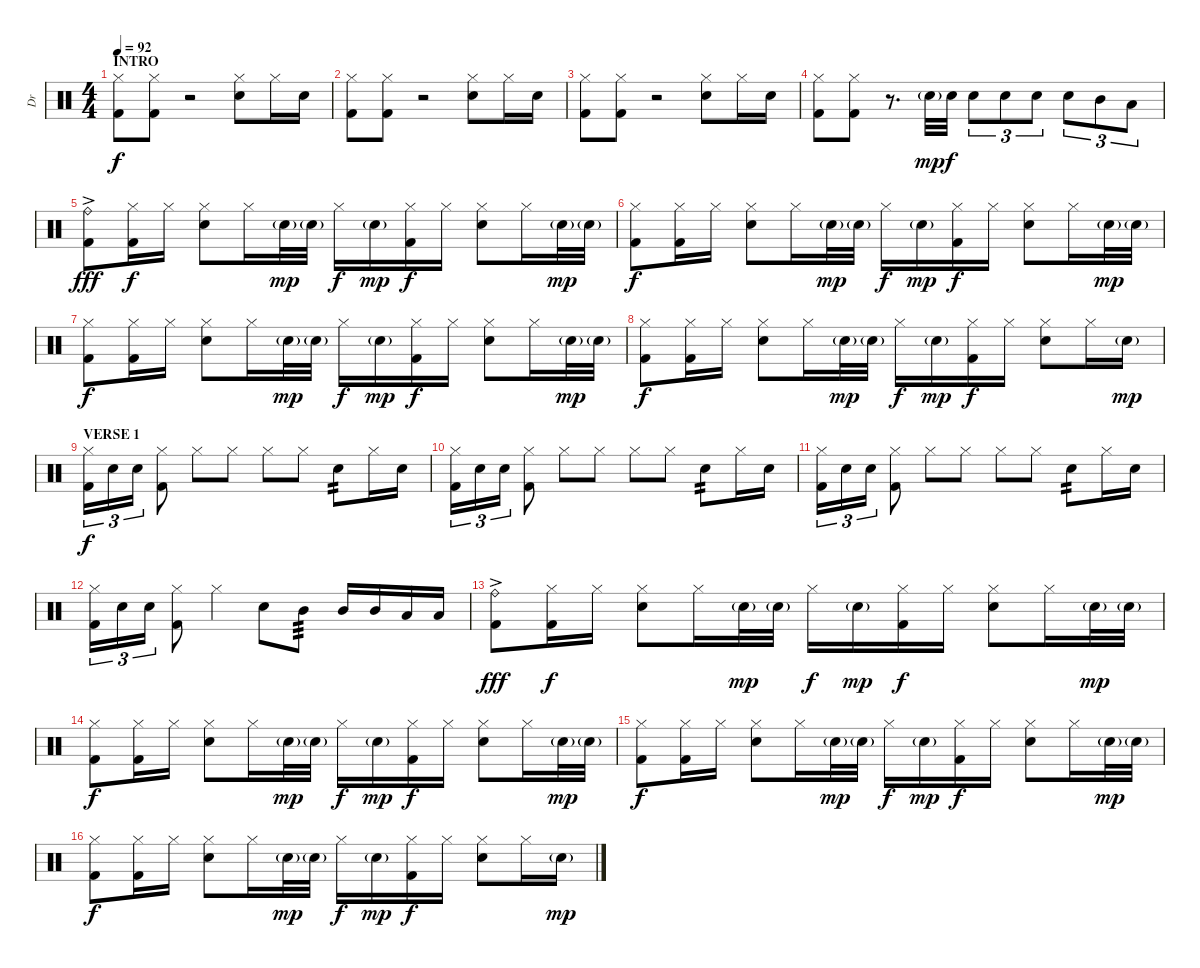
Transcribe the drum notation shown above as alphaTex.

\track ("Dr" "Dr") {instrument percussion}
\staff {score}
\articulation defaults
\ts (4 4)
\section ("" "INTRO")
\tempo 92
\clef neutral
\ks c
("Hi-Hat (closed)" "Kick (hit) 2").8{dy f volume 14} ("Hi-Hat (closed)" "Kick (hit) 2").8 r.2 ("Hi-Hat (closed)" "Electric Snare (hit)").8 "Hi-Hat (closed)".16 "Electric Snare (hit)".16 |
("Hi-Hat (closed)" "Kick (hit) 2").8 ("Hi-Hat (closed)" "Kick (hit) 2").8 r.2 ("Hi-Hat (closed)" "Electric Snare (hit)").8 "Hi-Hat (closed)".16 "Electric Snare (hit)".16 |
("Hi-Hat (closed)" "Kick (hit) 2").8 ("Hi-Hat (closed)" "Kick (hit) 2").8 r.2 ("Hi-Hat (closed)" "Electric Snare (hit)").8 "Hi-Hat (closed)".16 "Electric Snare (hit)".16 |
("Hi-Hat (closed)" "Kick (hit) 2").8 ("Hi-Hat (closed)" "Kick (hit) 2").8 r.8{d} "Electric Snare (hit)"{g}.32{dy mp} "Electric Snare (hit)".32{dy f} "Electric Snare (hit)".8{tu (3 2)} "Electric Snare (hit)".8{tu (3 2)} "Electric Snare (hit)".8{tu (3 2)} "Electric Snare (hit)".8{tu (3 2)} "Mid Tom (hit)".8{tu (3 2)} "Low Tom (hit)".8{tu (3 2)} |
("Ride (bell)"{ac} "Kick (hit) 2"{ac}).8{dy fff} ("Hi-Hat (closed)" "Kick (hit) 2").16{dy f} "Hi-Hat (closed)".16 ("Hi-Hat (closed)" "Electric Snare (hit)").8 "Hi-Hat (closed)".16 "Electric Snare (hit)"{g}.32{dy mp} "Electric Snare (hit)"{g}.32 "Hi-Hat (closed)".16{dy f} "Electric Snare (hit)"{g}.16{dy mp} ("Hi-Hat (closed)" "Kick (hit) 2").16{dy f} "Hi-Hat (closed)".16 ("Hi-Hat (closed)" "Electric Snare (hit)").8 "Hi-Hat (closed)".16 "Electric Snare (hit)"{g}.32{dy mp} "Electric Snare (hit)"{g}.32 |
("Hi-Hat (closed)" "Kick (hit) 2").8{dy f} ("Hi-Hat (closed)" "Kick (hit) 2").16 "Hi-Hat (closed)".16 ("Hi-Hat (closed)" "Electric Snare (hit)").8 "Hi-Hat (closed)".16 "Electric Snare (hit)"{g}.32{dy mp} "Electric Snare (hit)"{g}.32 "Hi-Hat (closed)".16{dy f} "Electric Snare (hit)"{g}.16{dy mp} ("Hi-Hat (closed)" "Kick (hit) 2").16{dy f} "Hi-Hat (closed)".16 ("Hi-Hat (closed)" "Electric Snare (hit)").8 "Hi-Hat (closed)".16 "Electric Snare (hit)"{g}.32{dy mp} "Electric Snare (hit)"{g}.32 |
("Hi-Hat (closed)" "Kick (hit) 2").8{dy f} ("Hi-Hat (closed)" "Kick (hit) 2").16 "Hi-Hat (closed)".16 ("Hi-Hat (closed)" "Electric Snare (hit)").8 "Hi-Hat (closed)".16 "Electric Snare (hit)"{g}.32{dy mp} "Electric Snare (hit)"{g}.32 "Hi-Hat (closed)".16{dy f} "Electric Snare (hit)"{g}.16{dy mp} ("Hi-Hat (closed)" "Kick (hit) 2").16{dy f} "Hi-Hat (closed)".16 ("Hi-Hat (closed)" "Electric Snare (hit)").8 "Hi-Hat (closed)".16 "Electric Snare (hit)"{g}.32{dy mp} "Electric Snare (hit)"{g}.32 |
("Hi-Hat (closed)" "Kick (hit) 2").8{dy f} ("Hi-Hat (closed)" "Kick (hit) 2").16 "Hi-Hat (closed)".16 ("Hi-Hat (closed)" "Electric Snare (hit)").8 "Hi-Hat (closed)".16 "Electric Snare (hit)"{g}.32{dy mp} "Electric Snare (hit)"{g}.32 "Hi-Hat (closed)".16{dy f} "Electric Snare (hit)"{g}.16{dy mp} ("Hi-Hat (closed)" "Kick (hit) 2").16{dy f} "Hi-Hat (closed)".16 ("Hi-Hat (closed)" "Electric Snare (hit)").8 "Hi-Hat (closed)".16 "Electric Snare (hit)"{g}.16{dy mp} |
\section ("" "VERSE 1")
("Hi-Hat (closed)" "Kick (hit) 2").16{tu (3 2) dy f} "Electric Snare (hit)".16{tu (3 2)} "Electric Snare (hit)".16{tu (3 2)} ("Hi-Hat (closed)" "Kick (hit) 2").8 "Hi-Hat (closed)".8 "Hi-Hat (closed)".8 "Hi-Hat (closed)".8 "Hi-Hat (closed)".8 "Electric Snare (hit)".8{tp 2} "Hi-Hat (closed)".16 "Electric Snare (hit)".16 |
("Hi-Hat (closed)" "Kick (hit) 2").16{tu (3 2)} "Electric Snare (hit)".16{tu (3 2)} "Electric Snare (hit)".16{tu (3 2)} ("Hi-Hat (closed)" "Kick (hit) 2").8 "Hi-Hat (closed)".8 "Hi-Hat (closed)".8 "Hi-Hat (closed)".8 "Hi-Hat (closed)".8 "Electric Snare (hit)".8{tp 2} "Hi-Hat (closed)".16 "Electric Snare (hit)".16 |
("Hi-Hat (closed)" "Kick (hit) 2").16{tu (3 2)} "Electric Snare (hit)".16{tu (3 2)} "Electric Snare (hit)".16{tu (3 2)} ("Hi-Hat (closed)" "Kick (hit) 2").8 "Hi-Hat (closed)".8 "Hi-Hat (closed)".8 "Hi-Hat (closed)".8 "Hi-Hat (closed)".8 "Electric Snare (hit)".8{tp 2} "Hi-Hat (closed)".16 "Electric Snare (hit)".16 |
("Hi-Hat (closed)" "Kick (hit) 2").16{tu (3 2)} "Electric Snare (hit)".16{tu (3 2)} "Electric Snare (hit)".16{tu (3 2)} ("Hi-Hat (closed)" "Kick (hit) 2").8 "Hi-Hat (closed)".4 "Electric Snare (hit)".8 "Mid Tom (hit)".8{tp 3} "Mid Tom (hit)".16 "Mid Tom (hit)".16 "Low Tom (hit)".16 "Low Tom (hit)".16 |
("Ride (bell)"{ac} "Kick (hit) 2"{ac}).8{dy fff} ("Hi-Hat (closed)" "Kick (hit) 2").16{dy f} "Hi-Hat (closed)".16 ("Hi-Hat (closed)" "Electric Snare (hit)").8 "Hi-Hat (closed)".16 "Electric Snare (hit)"{g}.32{dy mp} "Electric Snare (hit)"{g}.32 "Hi-Hat (closed)".16{dy f} "Electric Snare (hit)"{g}.16{dy mp} ("Hi-Hat (closed)" "Kick (hit) 2").16{dy f} "Hi-Hat (closed)".16 ("Hi-Hat (closed)" "Electric Snare (hit)").8 "Hi-Hat (closed)".16 "Electric Snare (hit)"{g}.32{dy mp} "Electric Snare (hit)"{g}.32 |
("Hi-Hat (closed)" "Kick (hit) 2").8{dy f} ("Hi-Hat (closed)" "Kick (hit) 2").16 "Hi-Hat (closed)".16 ("Hi-Hat (closed)" "Electric Snare (hit)").8 "Hi-Hat (closed)".16 "Electric Snare (hit)"{g}.32{dy mp} "Electric Snare (hit)"{g}.32 "Hi-Hat (closed)".16{dy f} "Electric Snare (hit)"{g}.16{dy mp} ("Hi-Hat (closed)" "Kick (hit) 2").16{dy f} "Hi-Hat (closed)".16 ("Hi-Hat (closed)" "Electric Snare (hit)").8 "Hi-Hat (closed)".16 "Electric Snare (hit)"{g}.32{dy mp} "Electric Snare (hit)"{g}.32 |
("Hi-Hat (closed)" "Kick (hit) 2").8{dy f} ("Hi-Hat (closed)" "Kick (hit) 2").16 "Hi-Hat (closed)".16 ("Hi-Hat (closed)" "Electric Snare (hit)").8 "Hi-Hat (closed)".16 "Electric Snare (hit)"{g}.32{dy mp} "Electric Snare (hit)"{g}.32 "Hi-Hat (closed)".16{dy f} "Electric Snare (hit)"{g}.16{dy mp} ("Hi-Hat (closed)" "Kick (hit) 2").16{dy f} "Hi-Hat (closed)".16 ("Hi-Hat (closed)" "Electric Snare (hit)").8 "Hi-Hat (closed)".16 "Electric Snare (hit)"{g}.32{dy mp} "Electric Snare (hit)"{g}.32 |
("Hi-Hat (closed)" "Kick (hit) 2").8{dy f} ("Hi-Hat (closed)" "Kick (hit) 2").16 "Hi-Hat (closed)".16 ("Hi-Hat (closed)" "Electric Snare (hit)").8 "Hi-Hat (closed)".16 "Electric Snare (hit)"{g}.32{dy mp} "Electric Snare (hit)"{g}.32 "Hi-Hat (closed)".16{dy f} "Electric Snare (hit)"{g}.16{dy mp} ("Hi-Hat (closed)" "Kick (hit) 2").16{dy f} "Hi-Hat (closed)".16 ("Hi-Hat (closed)" "Electric Snare (hit)").8 "Hi-Hat (closed)".16 "Electric Snare (hit)"{g}.16{dy mp}
